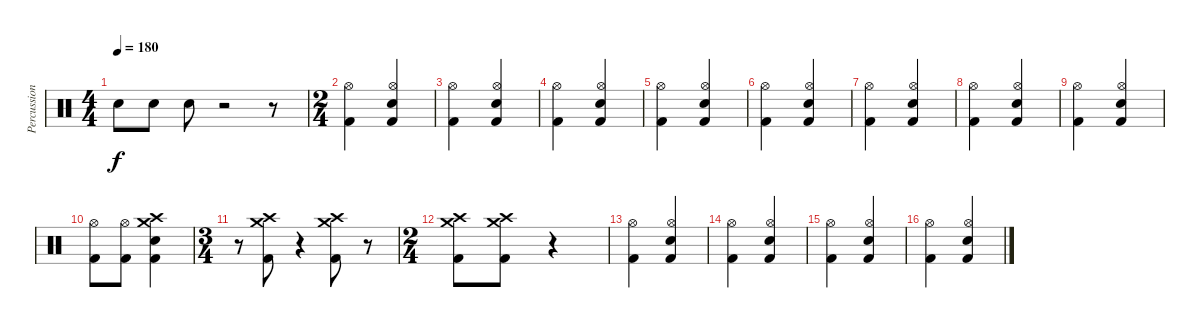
\track ("Percussion" "Percussion") {instrument percussion}
\staff {score}
\articulation defaults
\ts (4 4)
\tempo 180
\clef neutral
\ks c "Snare (hit) 2".8{dy f} "Snare (hit) 2".8 "Snare (hit) 2".8
r.2 r.8 |
\ts (2 4)
("Hi-Hat (open)" "Kick (hit) 2").4 ("Hi-Hat (open)" "Snare (hit) 2" "Kick (hit) 2").4 |
("Hi-Hat (open)" "Kick (hit) 2").4 ("Hi-Hat (open)" "Snare (hit) 2" "Kick (hit) 2").4 |
("Hi-Hat (open)" "Kick (hit) 2").4 ("Hi-Hat (open)" "Snare (hit) 2" "Kick (hit) 2").4 |
("Hi-Hat (open)" "Kick (hit) 2").4 ("Hi-Hat (open)" "Snare (hit) 2" "Kick (hit) 2").4 |
("Hi-Hat (open)" "Kick (hit) 2").4 ("Hi-Hat (open)" "Snare (hit) 2" "Kick (hit) 2").4 |
("Hi-Hat (open)" "Kick (hit) 2").4 ("Hi-Hat (open)" "Snare (hit) 2" "Kick (hit) 2").4 |
("Hi-Hat (open)" "Kick (hit) 2").4 ("Hi-Hat (open)" "Snare (hit) 2" "Kick (hit) 2").4 |
("Hi-Hat (open)" "Kick (hit) 2").4 ("Hi-Hat (open)" "Snare (hit) 2" "Kick (hit) 2").4 |
("Hi-Hat (open)" "Kick (hit) 2").8 ("Hi-Hat (open)" "Kick (hit) 2").8 ("Crash medium (hit)" "Crash high (hit)" "Snare (hit) 2" "Kick (hit) 2").4 |
\ts (3 4)
r.8 ("Crash medium (hit)" "Crash high (hit)" "Kick (hit) 2").8 r.4 ("Crash medium (hit)" "Crash high (hit)" "Kick (hit) 2").8 r.8 |
\ts (2 4)
("Crash high (hit)" "Crash medium (hit)" "Kick (hit) 2").8 ("Crash high (hit)" "Crash medium (hit)" "Kick (hit) 2").8 r.4 |
("Hi-Hat (open)" "Kick (hit) 2").4 ("Hi-Hat (open)" "Snare (hit) 2" "Kick (hit) 2").4 |
("Hi-Hat (open)" "Kick (hit) 2").4 ("Hi-Hat (open)" "Snare (hit) 2" "Kick (hit) 2").4 |
("Hi-Hat (open)" "Kick (hit) 2").4 ("Hi-Hat (open)" "Snare (hit) 2" "Kick (hit) 2").4 |
("Hi-Hat (open)" "Kick (hit) 2").4 ("Hi-Hat (open)" "Snare (hit) 2" "Kick (hit) 2").4
